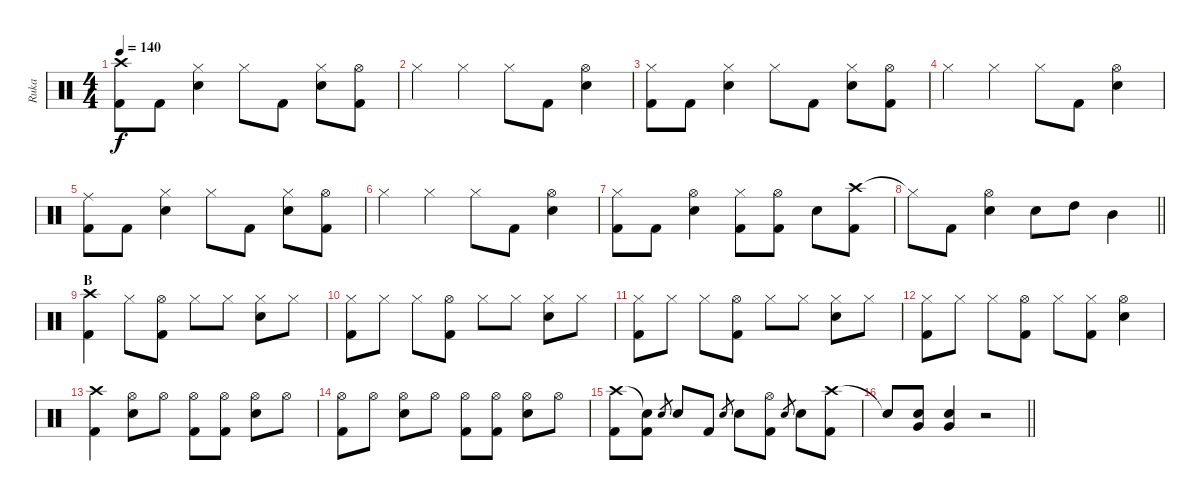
\track ("Ruka" "Ruka") {instrument percussion}
\staff {score}
\articulation defaults
\ts (4 4)
\tempo 140
\clef neutral
\ks c
("Crash high (hit)" "Kick (hit) 2").8{dy f} "Kick (hit) 2".8 ("Hi-Hat (closed)" "Snare (hit) 2").4 "Hi-Hat (closed)".8 "Kick (hit) 2".8 ("Hi-Hat (closed)" "Snare (hit) 2").8 ("Hi-Hat (open)" "Kick (hit) 2").8 |
"Hi-Hat (closed)".4 "Hi-Hat (closed)".4 "Hi-Hat (closed)".8 "Kick (hit) 2".8 ("Hi-Hat (open)" "Snare (hit) 2").4 |
("Hi-Hat (closed)" "Kick (hit) 2").8 "Kick (hit) 2".8 ("Hi-Hat (closed)" "Snare (hit) 2").4 "Hi-Hat (closed)".8 "Kick (hit) 2".8 ("Hi-Hat (closed)" "Snare (hit) 2").8 ("Hi-Hat (open)" "Kick (hit) 2").8 |
"Hi-Hat (closed)".4 "Hi-Hat (closed)".4 "Hi-Hat (closed)".8 "Kick (hit) 2".8 ("Hi-Hat (open)" "Snare (hit) 2").4 |
("Ride (middle)" "Kick (hit) 2").8 "Kick (hit) 2".8 ("Hi-Hat (closed)" "Snare (hit) 2").4 "Hi-Hat (closed)".8 "Kick (hit) 2".8 ("Hi-Hat (closed)" "Snare (hit) 2").8 ("Hi-Hat (open)" "Kick (hit) 2").8 |
"Hi-Hat (closed)".4 "Hi-Hat (closed)".4 "Hi-Hat (closed)".8 "Kick (hit) 2".8 ("Hi-Hat (open)" "Snare (hit) 2").4 |
("Hi-Hat (closed)" "Kick (hit) 2").8 "Kick (hit) 2".8 ("Hi-Hat (open)" "Snare (hit) 2").4 ("Hi-Hat (closed)" "Kick (hit) 2").8 ("Hi-Hat (open)" "Kick (hit) 2").8 "Snare (hit) 2".8 ("Crash high (hit)" "Kick (hit) 2").8 |
\barLineRight lightlight "Hi-Hat (closed)"{t}.8 "Kick (hit) 2".8
("Hi-Hat (open)" "Snare (hit) 2").4 "Snare (hit) 2".8 "High Tom (hit)".8 "Mid Tom (hit)".4 |
\section ("" "B")
("Crash high (hit)" "Kick (hit) 2").4 "Hi-Hat (closed)".8 ("Hi-Hat (open)" "Kick (hit) 2").8 "Hi-Hat (closed)".8 "Hi-Hat (closed)".8 ("Hi-Hat (closed)" "Snare (hit) 2").8 "Hi-Hat (closed)".8 |
("Hi-Hat (closed)" "Kick (hit) 2").8 "Hi-Hat (closed)".8 "Hi-Hat (closed)".8 ("Hi-Hat (open)" "Kick (hit) 2").8 "Hi-Hat (closed)".8 "Hi-Hat (closed)".8 ("Hi-Hat (closed)" "Snare (hit) 2").8 "Hi-Hat (closed)".8 |
("Hi-Hat (closed)" "Kick (hit) 2").8 "Hi-Hat (closed)".8 "Hi-Hat (closed)".8 ("Hi-Hat (open)" "Kick (hit) 2").8 "Hi-Hat (closed)".8 "Hi-Hat (closed)".8 ("Hi-Hat (closed)" "Snare (hit) 2").8 "Hi-Hat (closed)".8 |
("Hi-Hat (closed)" "Kick (hit) 2").8 "Hi-Hat (closed)".8 "Hi-Hat (closed)".8 ("Hi-Hat (open)" "Kick (hit) 2").8 "Hi-Hat (closed)".8 ("Hi-Hat (closed)" "Kick (hit) 2").8 ("Hi-Hat (open)" "Snare (hit) 2").4 |
("Crash high (hit)" "Kick (hit) 2").4 ("Hi-Hat (open)" "Snare (hit) 2").8 "Hi-Hat (open)".8 ("Hi-Hat (open)" "Kick (hit) 2").8 ("Hi-Hat (open)" "Kick (hit) 2").8 ("Hi-Hat (open)" "Snare (hit) 2").8 "Hi-Hat (open)".8 |
("Hi-Hat (open)" "Kick (hit) 2").8 "Hi-Hat (open)".8 ("Hi-Hat (open)" "Snare (hit) 2").8 "Hi-Hat (open)".8 ("Hi-Hat (open)" "Kick (hit) 2").8 ("Hi-Hat (open)" "Kick (hit) 2").8 ("Hi-Hat (open)" "Snare (hit) 2").8 "Hi-Hat (open)".8 |
("Crash high (hit)" "Kick (hit) 2").8 ("Snare (hit)"{t} "Kick (hit) 2").8 "Snare (hit) 2".8{gr} "Snare (hit) 2".8 "Kick (hit) 2".8 "Snare (hit) 2".8{gr} "Snare (hit) 2".8 ("Hi-Hat (open)" "Kick (hit) 2").8 "Snare (hit) 2".8{gr} "Snare (hit) 2".8 ("Crash high (hit)" "Kick (hit) 2").8 |
\barLineRight lightlight "Snare (hit)"{t}.8
("Very Low Tom (hit)" "Snare (hit) 2").8 ("Very Low Tom (hit)" "Snare (hit) 2").4 r.2
